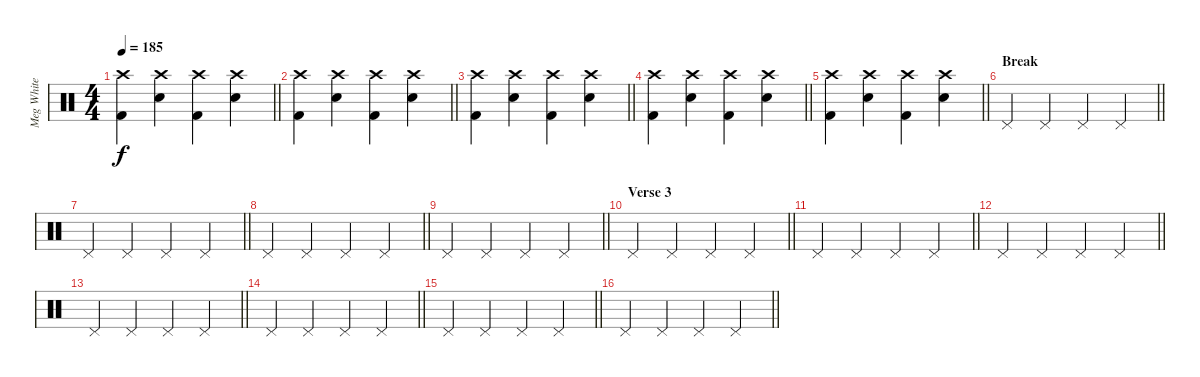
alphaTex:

\track ("Meg White (Drums)" "Meg White ") {instrument percussion}
\staff {score}
\articulation defaults
\ts (4 4)
\tempo 185
\clef neutral
\barLineRight lightlight
\ks c
("Kick (hit) 2" "Crash high (hit)").4{dy f} ("Electric Snare (hit)" "Crash high (hit)").4 ("Kick (hit) 2" "Crash high (hit)").4 ("Electric Snare (hit)" "Crash high (hit)").4 |
\barLineRight lightlight
("Kick (hit) 2" "Crash high (hit)").4 ("Electric Snare (hit)" "Crash high (hit)").4 ("Kick (hit) 2" "Crash high (hit)").4 ("Electric Snare (hit)" "Crash high (hit)").4 |
\barLineRight lightlight
("Kick (hit) 2" "Crash high (hit)").4 ("Electric Snare (hit)" "Crash high (hit)").4 ("Kick (hit) 2" "Crash high (hit)").4 ("Electric Snare (hit)" "Crash high (hit)").4 |
\barLineRight lightlight
("Kick (hit) 2" "Crash high (hit)").4 ("Electric Snare (hit)" "Crash high (hit)").4 ("Kick (hit) 2" "Crash high (hit)").4 ("Electric Snare (hit)" "Crash high (hit)").4 |
\barLineRight lightlight
("Kick (hit) 2" "Crash high (hit)").4 ("Electric Snare (hit)" "Crash high (hit)").4 ("Kick (hit) 2" "Crash high (hit)").4 ("Electric Snare (hit)" "Crash high (hit)").4 |
\section ("" "Break")
\barLineRight lightlight "Pedal Hi-Hat (hit)".4 "Pedal Hi-Hat (hit)".4 "Pedal Hi-Hat (hit)".4 "Pedal Hi-Hat (hit)".4
|
\barLineRight lightlight "Pedal Hi-Hat (hit)".4 "Pedal Hi-Hat (hit)".4 "Pedal Hi-Hat (hit)".4 "Pedal Hi-Hat (hit)".4
|
\barLineRight lightlight "Pedal Hi-Hat (hit)".4 "Pedal Hi-Hat (hit)".4 "Pedal Hi-Hat (hit)".4 "Pedal Hi-Hat (hit)".4
|
\barLineRight lightlight "Pedal Hi-Hat (hit)".4 "Pedal Hi-Hat (hit)".4 "Pedal Hi-Hat (hit)".4 "Pedal Hi-Hat (hit)".4
|
\section ("" "Verse 3")
\barLineRight lightlight "Pedal Hi-Hat (hit)".4 "Pedal Hi-Hat (hit)".4 "Pedal Hi-Hat (hit)".4 "Pedal Hi-Hat (hit)".4
|
\barLineRight lightlight "Pedal Hi-Hat (hit)".4 "Pedal Hi-Hat (hit)".4 "Pedal Hi-Hat (hit)".4 "Pedal Hi-Hat (hit)".4
|
\barLineRight lightlight "Pedal Hi-Hat (hit)".4 "Pedal Hi-Hat (hit)".4 "Pedal Hi-Hat (hit)".4 "Pedal Hi-Hat (hit)".4
|
\barLineRight lightlight "Pedal Hi-Hat (hit)".4 "Pedal Hi-Hat (hit)".4 "Pedal Hi-Hat (hit)".4 "Pedal Hi-Hat (hit)".4
|
\barLineRight lightlight "Pedal Hi-Hat (hit)".4 "Pedal Hi-Hat (hit)".4 "Pedal Hi-Hat (hit)".4 "Pedal Hi-Hat (hit)".4
|
\barLineRight lightlight "Pedal Hi-Hat (hit)".4 "Pedal Hi-Hat (hit)".4 "Pedal Hi-Hat (hit)".4 "Pedal Hi-Hat (hit)".4
|
\barLineRight lightlight "Pedal Hi-Hat (hit)".4 "Pedal Hi-Hat (hit)".4 "Pedal Hi-Hat (hit)".4 "Pedal Hi-Hat (hit)".4
